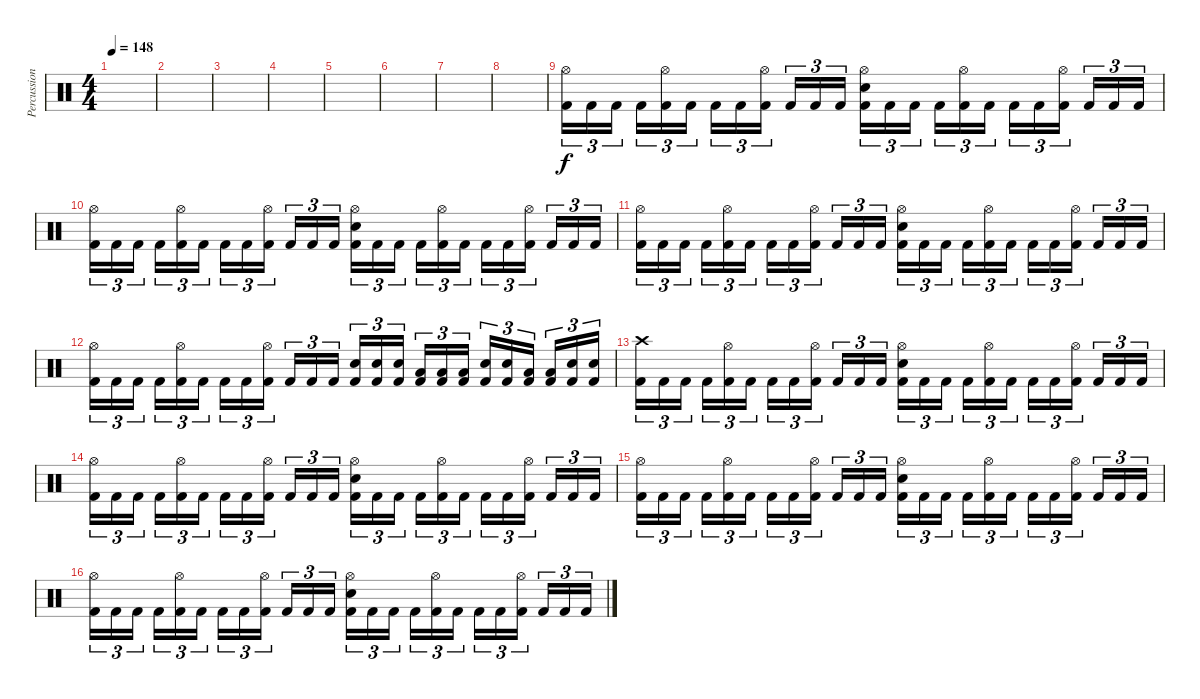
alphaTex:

\track ("Percussion" "Percussion") {instrument percussion}
\staff {score}
\articulation defaults
\ts (4 4)
\tempo 148
\clef neutral
\ks c
|
|
|
|
|
|
|
|
("Hi-Hat (open)" "Kick (hit) 2").16{tu (3 2)} "Kick (hit) 2".16{tu (3 2)} "Kick (hit) 2".16{tu (3 2)} "Kick (hit) 2".16{tu (3 2)} ("Hi-Hat (open)" "Kick (hit) 2").16{tu (3 2)} "Kick (hit) 2".16{tu (3 2)} "Kick (hit) 2".16{tu (3 2)} "Kick (hit) 2".16{tu (3 2)} ("Hi-Hat (open)" "Kick (hit) 2").16{tu (3 2)} "Kick (hit) 2".16{tu (3 2)} "Kick (hit) 2".16{tu (3 2)} "Kick (hit) 2".16{tu (3 2)} ("Hi-Hat (open)" "Electric Snare (hit)" "Kick (hit) 2").16{tu (3 2)} "Kick (hit) 2".16{tu (3 2)} "Kick (hit) 2".16{tu (3 2)} "Kick (hit) 2".16{tu (3 2)} ("Hi-Hat (open)" "Kick (hit) 2").16{tu (3 2)} "Kick (hit) 2".16{tu (3 2)} "Kick (hit) 2".16{tu (3 2)} "Kick (hit) 2".16{tu (3 2)} ("Hi-Hat (open)" "Kick (hit) 2").16{tu (3 2)} "Kick (hit) 2".16{tu (3 2)} "Kick (hit) 2".16{tu (3 2)} "Kick (hit) 2".16{tu (3 2)} |
("Hi-Hat (open)" "Kick (hit) 2").16{tu (3 2)} "Kick (hit) 2".16{tu (3 2)} "Kick (hit) 2".16{tu (3 2)} "Kick (hit) 2".16{tu (3 2)} ("Hi-Hat (open)" "Kick (hit) 2").16{tu (3 2)} "Kick (hit) 2".16{tu (3 2)} "Kick (hit) 2".16{tu (3 2)} "Kick (hit) 2".16{tu (3 2)} ("Hi-Hat (open)" "Kick (hit) 2").16{tu (3 2)} "Kick (hit) 2".16{tu (3 2)} "Kick (hit) 2".16{tu (3 2)} "Kick (hit) 2".16{tu (3 2)} ("Hi-Hat (open)" "Electric Snare (hit)" "Kick (hit) 2").16{tu (3 2)} "Kick (hit) 2".16{tu (3 2)} "Kick (hit) 2".16{tu (3 2)} "Kick (hit) 2".16{tu (3 2)} ("Hi-Hat (open)" "Kick (hit) 2").16{tu (3 2)} "Kick (hit) 2".16{tu (3 2)} "Kick (hit) 2".16{tu (3 2)} "Kick (hit) 2".16{tu (3 2)} ("Hi-Hat (open)" "Kick (hit) 2").16{tu (3 2)} "Kick (hit) 2".16{tu (3 2)} "Kick (hit) 2".16{tu (3 2)} "Kick (hit) 2".16{tu (3 2)} |
("Hi-Hat (open)" "Kick (hit) 2").16{tu (3 2)} "Kick (hit) 2".16{tu (3 2)} "Kick (hit) 2".16{tu (3 2)} "Kick (hit) 2".16{tu (3 2)} ("Hi-Hat (open)" "Kick (hit) 2").16{tu (3 2)} "Kick (hit) 2".16{tu (3 2)} "Kick (hit) 2".16{tu (3 2)} "Kick (hit) 2".16{tu (3 2)} ("Hi-Hat (open)" "Kick (hit) 2").16{tu (3 2)} "Kick (hit) 2".16{tu (3 2)} "Kick (hit) 2".16{tu (3 2)} "Kick (hit) 2".16{tu (3 2)} ("Hi-Hat (open)" "Electric Snare (hit)" "Kick (hit) 2").16{tu (3 2)} "Kick (hit) 2".16{tu (3 2)} "Kick (hit) 2".16{tu (3 2)} "Kick (hit) 2".16{tu (3 2)} ("Hi-Hat (open)" "Kick (hit) 2").16{tu (3 2)} "Kick (hit) 2".16{tu (3 2)} "Kick (hit) 2".16{tu (3 2)} "Kick (hit) 2".16{tu (3 2)} ("Hi-Hat (open)" "Kick (hit) 2").16{tu (3 2)} "Kick (hit) 2".16{tu (3 2)} "Kick (hit) 2".16{tu (3 2)} "Kick (hit) 2".16{tu (3 2)} |
("Hi-Hat (open)" "Kick (hit) 2").16{tu (3 2)} "Kick (hit) 2".16{tu (3 2)} "Kick (hit) 2".16{tu (3 2)} "Kick (hit) 2".16{tu (3 2)} ("Hi-Hat (open)" "Kick (hit) 2").16{tu (3 2)} "Kick (hit) 2".16{tu (3 2)} "Kick (hit) 2".16{tu (3 2)} "Kick (hit) 2".16{tu (3 2)} ("Hi-Hat (open)" "Kick (hit) 2").16{tu (3 2)} "Kick (hit) 2".16{tu (3 2)} "Kick (hit) 2".16{tu (3 2)} "Kick (hit) 2".16{tu (3 2)} ("Electric Snare (hit)" "Kick (hit) 2").16{tu (3 2)} ("Electric Snare (hit)" "Kick (hit) 2").16{tu (3 2)} ("Electric Snare (hit)" "Kick (hit) 2").16{tu (3 2)} ("Low Tom (hit)" "Kick (hit) 2").16{tu (3 2)} ("Low Tom (hit)" "Kick (hit) 2").16{tu (3 2)} ("Low Tom (hit)" "Kick (hit) 2").16{tu (3 2)} ("Electric Snare (hit)" "Kick (hit) 2").16{tu (3 2)} ("Electric Snare (hit)" "Kick (hit) 2").16{tu (3 2)} ("Low Tom (hit)" "Kick (hit) 2").16{tu (3 2)} ("Low Tom (hit)" "Kick (hit) 2").16{tu (3 2)} ("Electric Snare (hit)" "Kick (hit) 2").16{tu (3 2)} ("Electric Snare (hit)" "Kick (hit) 2").16{tu (3 2)} |
("Crash high (hit)" "Kick (hit) 2").16{tu (3 2)} "Kick (hit) 2".16{tu (3 2)} "Kick (hit) 2".16{tu (3 2)} "Kick (hit) 2".16{tu (3 2)} ("Hi-Hat (open)" "Kick (hit) 2").16{tu (3 2)} "Kick (hit) 2".16{tu (3 2)} "Kick (hit) 2".16{tu (3 2)} "Kick (hit) 2".16{tu (3 2)} ("Hi-Hat (open)" "Kick (hit) 2").16{tu (3 2)} "Kick (hit) 2".16{tu (3 2)} "Kick (hit) 2".16{tu (3 2)} "Kick (hit) 2".16{tu (3 2)} ("Hi-Hat (open)" "Electric Snare (hit)" "Kick (hit) 2").16{tu (3 2)} "Kick (hit) 2".16{tu (3 2)} "Kick (hit) 2".16{tu (3 2)} "Kick (hit) 2".16{tu (3 2)} ("Hi-Hat (open)" "Kick (hit) 2").16{tu (3 2)} "Kick (hit) 2".16{tu (3 2)} "Kick (hit) 2".16{tu (3 2)} "Kick (hit) 2".16{tu (3 2)} ("Hi-Hat (open)" "Kick (hit) 2").16{tu (3 2)} "Kick (hit) 2".16{tu (3 2)} "Kick (hit) 2".16{tu (3 2)} "Kick (hit) 2".16{tu (3 2)} |
("Hi-Hat (open)" "Kick (hit) 2").16{tu (3 2)} "Kick (hit) 2".16{tu (3 2)} "Kick (hit) 2".16{tu (3 2)} "Kick (hit) 2".16{tu (3 2)} ("Hi-Hat (open)" "Kick (hit) 2").16{tu (3 2)} "Kick (hit) 2".16{tu (3 2)} "Kick (hit) 2".16{tu (3 2)} "Kick (hit) 2".16{tu (3 2)} ("Hi-Hat (open)" "Kick (hit) 2").16{tu (3 2)} "Kick (hit) 2".16{tu (3 2)} "Kick (hit) 2".16{tu (3 2)} "Kick (hit) 2".16{tu (3 2)} ("Hi-Hat (open)" "Electric Snare (hit)" "Kick (hit) 2").16{tu (3 2)} "Kick (hit) 2".16{tu (3 2)} "Kick (hit) 2".16{tu (3 2)} "Kick (hit) 2".16{tu (3 2)} ("Hi-Hat (open)" "Kick (hit) 2").16{tu (3 2)} "Kick (hit) 2".16{tu (3 2)} "Kick (hit) 2".16{tu (3 2)} "Kick (hit) 2".16{tu (3 2)} ("Hi-Hat (open)" "Kick (hit) 2").16{tu (3 2)} "Kick (hit) 2".16{tu (3 2)} "Kick (hit) 2".16{tu (3 2)} "Kick (hit) 2".16{tu (3 2)} |
("Hi-Hat (open)" "Kick (hit) 2").16{tu (3 2)} "Kick (hit) 2".16{tu (3 2)} "Kick (hit) 2".16{tu (3 2)} "Kick (hit) 2".16{tu (3 2)} ("Hi-Hat (open)" "Kick (hit) 2").16{tu (3 2)} "Kick (hit) 2".16{tu (3 2)} "Kick (hit) 2".16{tu (3 2)} "Kick (hit) 2".16{tu (3 2)} ("Hi-Hat (open)" "Kick (hit) 2").16{tu (3 2)} "Kick (hit) 2".16{tu (3 2)} "Kick (hit) 2".16{tu (3 2)} "Kick (hit) 2".16{tu (3 2)} ("Hi-Hat (open)" "Electric Snare (hit)" "Kick (hit) 2").16{tu (3 2)} "Kick (hit) 2".16{tu (3 2)} "Kick (hit) 2".16{tu (3 2)} "Kick (hit) 2".16{tu (3 2)} ("Hi-Hat (open)" "Kick (hit) 2").16{tu (3 2)} "Kick (hit) 2".16{tu (3 2)} "Kick (hit) 2".16{tu (3 2)} "Kick (hit) 2".16{tu (3 2)} ("Hi-Hat (open)" "Kick (hit) 2").16{tu (3 2)} "Kick (hit) 2".16{tu (3 2)} "Kick (hit) 2".16{tu (3 2)} "Kick (hit) 2".16{tu (3 2)} |
("Hi-Hat (open)" "Kick (hit) 2").16{tu (3 2)} "Kick (hit) 2".16{tu (3 2)} "Kick (hit) 2".16{tu (3 2)} "Kick (hit) 2".16{tu (3 2)} ("Hi-Hat (open)" "Kick (hit) 2").16{tu (3 2)} "Kick (hit) 2".16{tu (3 2)} "Kick (hit) 2".16{tu (3 2)} "Kick (hit) 2".16{tu (3 2)} ("Hi-Hat (open)" "Kick (hit) 2").16{tu (3 2)} "Kick (hit) 2".16{tu (3 2)} "Kick (hit) 2".16{tu (3 2)} "Kick (hit) 2".16{tu (3 2)} ("Hi-Hat (open)" "Electric Snare (hit)" "Kick (hit) 2").16{tu (3 2)} "Kick (hit) 2".16{tu (3 2)} "Kick (hit) 2".16{tu (3 2)} "Kick (hit) 2".16{tu (3 2)} ("Hi-Hat (open)" "Kick (hit) 2").16{tu (3 2)} "Kick (hit) 2".16{tu (3 2)} "Kick (hit) 2".16{tu (3 2)} "Kick (hit) 2".16{tu (3 2)} ("Hi-Hat (open)" "Kick (hit) 2").16{tu (3 2)} "Kick (hit) 2".16{tu (3 2)} "Kick (hit) 2".16{tu (3 2)} "Kick (hit) 2".16{tu (3 2)}
